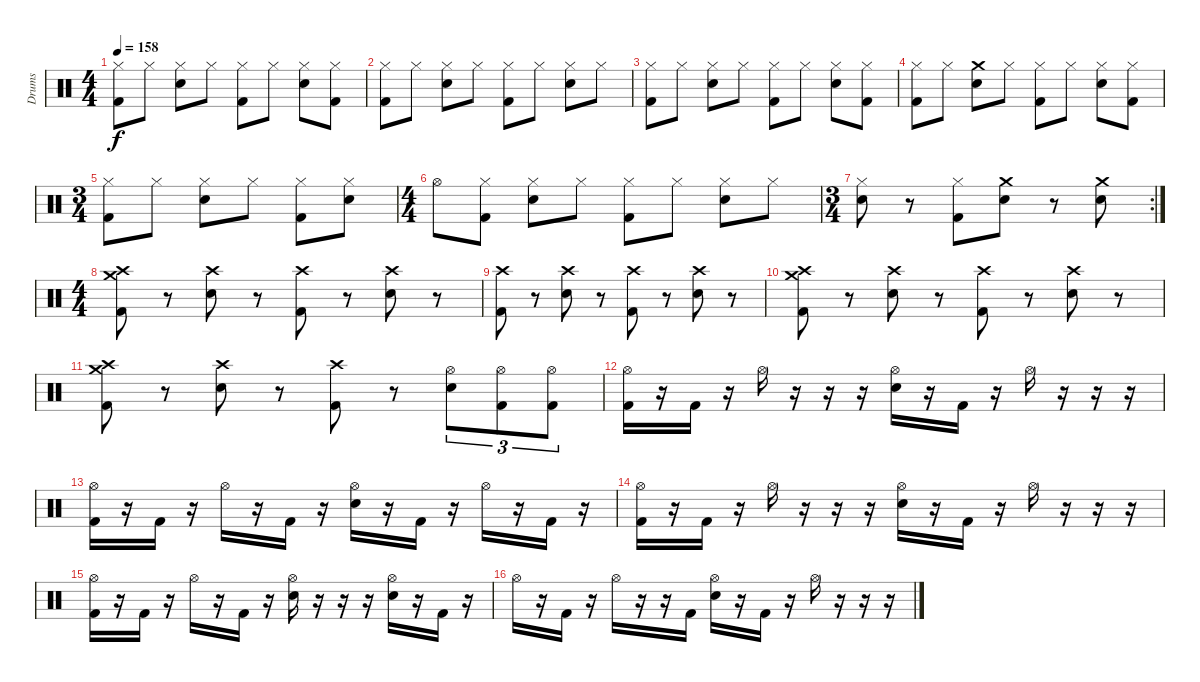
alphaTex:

\track ("Drums" "Drums") {instrument percussion}
\staff {score}
\articulation defaults
\ts (4 4)
\tempo 158
\clef neutral
\ks c
("Hi-Hat (closed)" "Kick (hit) 2").8{dy f} "Hi-Hat (closed)".8 ("Hi-Hat (closed)" "Snare (hit) 2").8 "Hi-Hat (closed)".8 ("Hi-Hat (closed)" "Kick (hit) 2").8 "Hi-Hat (closed)".8 ("Hi-Hat (closed)" "Snare (hit) 2").8 ("Hi-Hat (closed)" "Kick (hit) 2").8 |
("Hi-Hat (closed)" "Kick (hit) 2").8 "Hi-Hat (closed)".8 ("Hi-Hat (closed)" "Snare (hit) 2").8 "Hi-Hat (closed)".8 ("Hi-Hat (closed)" "Kick (hit) 2").8 "Hi-Hat (closed)".8 ("Hi-Hat (closed)" "Snare (hit) 2").8 "Hi-Hat (closed)".8 |
("Hi-Hat (closed)" "Kick (hit) 2").8 "Hi-Hat (closed)".8 ("Hi-Hat (closed)" "Snare (hit) 2").8 "Hi-Hat (closed)".8 ("Hi-Hat (closed)" "Kick (hit) 2").8 "Hi-Hat (closed)".8 ("Hi-Hat (closed)" "Snare (hit) 2").8 ("Hi-Hat (closed)" "Kick (hit) 2").8 |
("Hi-Hat (closed)" "Kick (hit) 2").8 "Hi-Hat (closed)".8 ("Crash medium (hit)" "Snare (hit) 2").8 "Hi-Hat (closed)".8 ("Hi-Hat (closed)" "Kick (hit) 2").8 "Hi-Hat (closed)".8 ("Hi-Hat (closed)" "Snare (hit) 2").8 ("Hi-Hat (closed)" "Kick (hit) 2").8 |
\ts (3 4)
("Hi-Hat (closed)" "Kick (hit) 2").8 "Hi-Hat (closed)".8 ("Hi-Hat (closed)" "Snare (hit) 2").8 "Hi-Hat (closed)".8 ("Hi-Hat (closed)" "Kick (hit) 2").8 ("Hi-Hat (closed)" "Snare (hit) 2").8 |
\ts (4 4)
"Hi-Hat (open)".8 ("Hi-Hat (closed)" "Kick (hit) 2").8 ("Hi-Hat (closed)" "Snare (hit) 2").8 "Hi-Hat (closed)".8 ("Hi-Hat (closed)" "Kick (hit) 2").8 "Hi-Hat (closed)".8 ("Hi-Hat (closed)" "Snare (hit) 2").8 "Hi-Hat (closed)".8 |
\rc 2
\ts (3 4)
("Hi-Hat (closed)" "Snare (hit) 2").8 r.8 ("Hi-Hat (closed)" "Kick (hit) 2").8 ("Crash medium (hit)" "Snare (hit) 2").8 r.8 ("Crash medium (hit)" "Snare (hit) 2").8 |
\ts (4 4)
("Crash high (hit)" "Crash medium (hit)" "Kick (hit) 2").8 r.8 ("Crash high (hit)" "Snare (hit) 2").8 r.8 ("Crash high (hit)" "Kick (hit) 2").8 r.8 ("Crash high (hit)" "Snare (hit) 2").8 r.8 |
("Crash high (hit)" "Kick (hit) 2").8 r.8 ("Crash high (hit)" "Snare (hit) 2").8 r.8 ("Crash high (hit)" "Kick (hit) 2").8 r.8 ("Crash high (hit)" "Snare (hit) 2").8 r.8 |
("Crash high (hit)" "Crash medium (hit)" "Kick (hit) 2").8 r.8 ("Crash high (hit)" "Snare (hit) 2").8 r.8 ("Crash high (hit)" "Kick (hit) 2").8 r.8 ("Crash high (hit)" "Snare (hit) 2").8 r.8 |
("Crash high (hit)" "Crash medium (hit)" "Kick (hit) 2").8 r.8 ("Crash high (hit)" "Snare (hit) 2").8 r.8 ("Crash high (hit)" "Kick (hit) 2").8 r.8 ("Hi-Hat (open)" "Snare (hit) 2").8{tu (3 2)} ("Hi-Hat (open)" "Kick (hit) 2").8{tu (3 2)} ("Hi-Hat (open)" "Kick (hit) 2").8{tu (3 2)} |
("Hi-Hat (open)" "Kick (hit) 2").16 r.16 "Kick (hit) 2".16 r.16 "Hi-Hat (open)".16 r.16 r.16 r.16 ("Hi-Hat (open)" "Snare (hit) 2").16 r.16 "Kick (hit) 2".16 r.16 "Hi-Hat (open)".16 r.16 r.16 r.16 |
("Hi-Hat (open)" "Kick (hit) 2").16 r.16 "Kick (hit) 2".16 r.16 "Hi-Hat (open)".16 r.16 "Kick (hit) 2".16 r.16 ("Hi-Hat (open)" "Snare (hit) 2").16 r.16 "Kick (hit) 2".16 r.16 "Hi-Hat (open)".16 r.16 "Kick (hit) 2".16 r.16 |
("Hi-Hat (open)" "Kick (hit) 2").16 r.16 "Kick (hit) 2".16 r.16 "Hi-Hat (open)".16 r.16 r.16 r.16 ("Hi-Hat (open)" "Snare (hit) 2").16 r.16 "Kick (hit) 2".16 r.16 "Hi-Hat (open)".16 r.16 r.16 r.16 |
("Hi-Hat (open)" "Kick (hit) 2").16 r.16 "Kick (hit) 2".16 r.16 "Hi-Hat (open)".16 r.16 "Kick (hit) 2".16 r.16 ("Hi-Hat (open)" "Snare (hit) 2").16 r.16 r.16 r.16 ("Hi-Hat (open)" "Snare (hit) 2").16 r.16 "Kick (hit) 2".16 r.16 |
"Hi-Hat (open)".16 r.16 "Kick (hit) 2".16 r.16 "Hi-Hat (open)".16 r.16 r.16 "Kick (hit) 2".16 ("Hi-Hat (open)" "Snare (hit) 2").16 r.16 "Kick (hit) 2".16 r.16 "Hi-Hat (open)".16 r.16 r.16 r.16
